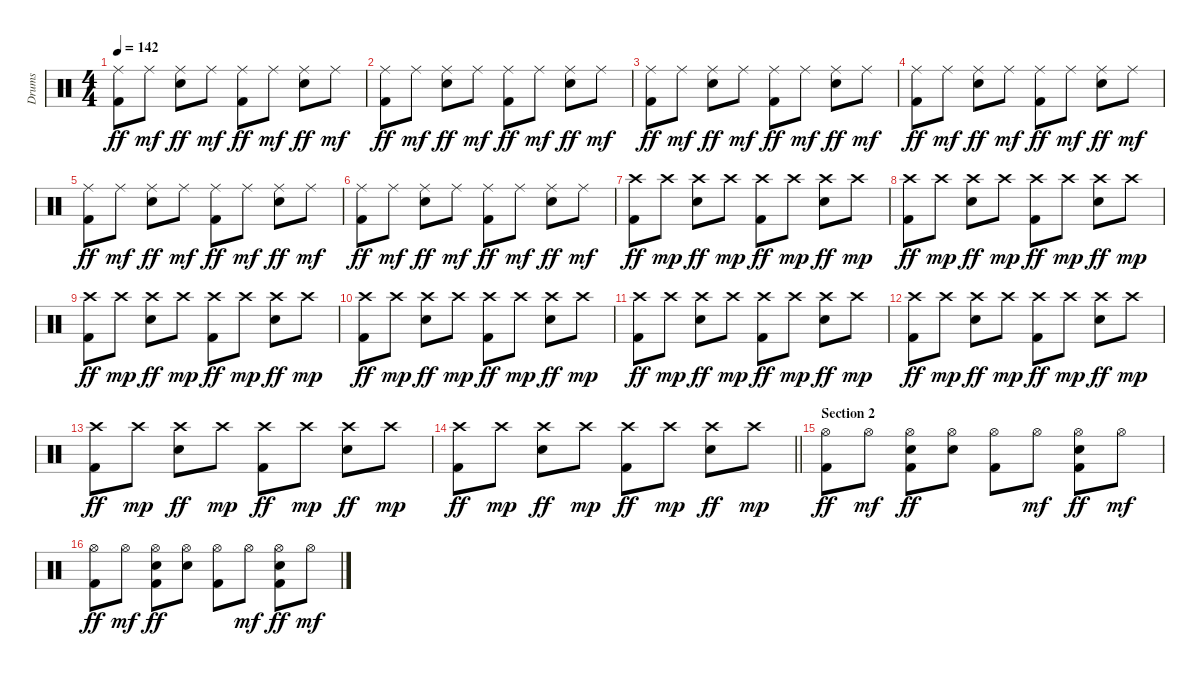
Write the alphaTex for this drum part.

\track ("Drums" "Drums") {instrument percussion}
\staff {score}
\articulation defaults
\ts (4 4)
\tempo 142
\clef neutral
\ks c
("Ride (middle)" "Kick (hit) 2").8{dy ff} "Ride (middle)".8{dy mf} ("Ride (middle)" "Snare (hit) 2").8{dy ff} "Ride (middle)".8{dy mf} ("Ride (middle)" "Kick (hit) 2").8{dy ff} "Ride (middle)".8{dy mf} ("Ride (middle)" "Snare (hit) 2").8{dy ff} "Ride (middle)".8{dy mf} |
("Ride (middle)" "Kick (hit) 2").8{dy ff} "Ride (middle)".8{dy mf} ("Ride (middle)" "Snare (hit) 2").8{dy ff} "Ride (middle)".8{dy mf} ("Ride (middle)" "Kick (hit) 2").8{dy ff} "Ride (middle)".8{dy mf} ("Ride (middle)" "Snare (hit) 2").8{dy ff} "Ride (middle)".8{dy mf} |
("Ride (middle)" "Kick (hit) 2").8{dy ff} "Ride (middle)".8{dy mf} ("Ride (middle)" "Snare (hit) 2").8{dy ff} "Ride (middle)".8{dy mf} ("Ride (middle)" "Kick (hit) 2").8{dy ff} "Ride (middle)".8{dy mf} ("Ride (middle)" "Snare (hit) 2").8{dy ff} "Ride (middle)".8{dy mf} |
("Ride (middle)" "Kick (hit) 2").8{dy ff} "Ride (middle)".8{dy mf} ("Ride (middle)" "Snare (hit) 2").8{dy ff} "Ride (middle)".8{dy mf} ("Ride (middle)" "Kick (hit) 2").8{dy ff} "Ride (middle)".8{dy mf} ("Ride (middle)" "Snare (hit) 2").8{dy ff} "Ride (middle)".8{dy mf} |
("Ride (middle)" "Kick (hit) 2").8{dy ff} "Ride (middle)".8{dy mf} ("Ride (middle)" "Snare (hit) 2").8{dy ff} "Ride (middle)".8{dy mf} ("Ride (middle)" "Kick (hit) 2").8{dy ff} "Ride (middle)".8{dy mf} ("Ride (middle)" "Snare (hit) 2").8{dy ff} "Ride (middle)".8{dy mf} |
("Ride (middle)" "Kick (hit) 2").8{dy ff} "Ride (middle)".8{dy mf} ("Ride (middle)" "Snare (hit) 2").8{dy ff} "Ride (middle)".8{dy mf} ("Ride (middle)" "Kick (hit) 2").8{dy ff} "Ride (middle)".8{dy mf} ("Ride (middle)" "Snare (hit) 2").8{dy ff} "Ride (middle)".8{dy mf} |
("Crash high (hit)" "Kick (hit) 2").8{dy ff} "Crash high (hit)".8{dy mp} ("Crash high (hit)" "Snare (hit) 2").8{dy ff} "Crash high (hit)".8{dy mp} ("Crash high (hit)" "Kick (hit) 2").8{dy ff} "Crash high (hit)".8{dy mp} ("Crash high (hit)" "Snare (hit) 2").8{dy ff} "Crash high (hit)".8{dy mp} |
("Crash high (hit)" "Kick (hit) 2").8{dy ff} "Crash high (hit)".8{dy mp} ("Crash high (hit)" "Snare (hit) 2").8{dy ff} "Crash high (hit)".8{dy mp} ("Crash high (hit)" "Kick (hit) 2").8{dy ff} "Crash high (hit)".8{dy mp} ("Crash high (hit)" "Snare (hit) 2").8{dy ff} "Crash high (hit)".8{dy mp} |
("Crash high (hit)" "Kick (hit) 2").8{dy ff} "Crash high (hit)".8{dy mp} ("Crash high (hit)" "Snare (hit) 2").8{dy ff} "Crash high (hit)".8{dy mp} ("Crash high (hit)" "Kick (hit) 2").8{dy ff} "Crash high (hit)".8{dy mp} ("Crash high (hit)" "Snare (hit) 2").8{dy ff} "Crash high (hit)".8{dy mp} |
("Crash high (hit)" "Kick (hit) 2").8{dy ff} "Crash high (hit)".8{dy mp} ("Crash high (hit)" "Snare (hit) 2").8{dy ff} "Crash high (hit)".8{dy mp} ("Crash high (hit)" "Kick (hit) 2").8{dy ff} "Crash high (hit)".8{dy mp} ("Crash high (hit)" "Snare (hit) 2").8{dy ff} "Crash high (hit)".8{dy mp} |
("Crash high (hit)" "Kick (hit) 2").8{dy ff} "Crash high (hit)".8{dy mp} ("Crash high (hit)" "Snare (hit) 2").8{dy ff} "Crash high (hit)".8{dy mp} ("Crash high (hit)" "Kick (hit) 2").8{dy ff} "Crash high (hit)".8{dy mp} ("Crash high (hit)" "Snare (hit) 2").8{dy ff} "Crash high (hit)".8{dy mp} |
("Crash high (hit)" "Kick (hit) 2").8{dy ff} "Crash high (hit)".8{dy mp} ("Crash high (hit)" "Snare (hit) 2").8{dy ff} "Crash high (hit)".8{dy mp} ("Crash high (hit)" "Kick (hit) 2").8{dy ff} "Crash high (hit)".8{dy mp} ("Crash high (hit)" "Snare (hit) 2").8{dy ff} "Crash high (hit)".8{dy mp} |
("Crash high (hit)" "Kick (hit) 2").8{dy ff} "Crash high (hit)".8{dy mp} ("Crash high (hit)" "Snare (hit) 2").8{dy ff} "Crash high (hit)".8{dy mp} ("Crash high (hit)" "Kick (hit) 2").8{dy ff} "Crash high (hit)".8{dy mp} ("Crash high (hit)" "Snare (hit) 2").8{dy ff} "Crash high (hit)".8{dy mp} |
\barLineRight lightlight
("Crash high (hit)" "Kick (hit) 2").8{dy ff} "Crash high (hit)".8{dy mp} ("Crash high (hit)" "Snare (hit) 2").8{dy ff} "Crash high (hit)".8{dy mp} ("Crash high (hit)" "Kick (hit) 2").8{dy ff} "Crash high (hit)".8{dy mp} ("Crash high (hit)" "Snare (hit) 2").8{dy ff} "Crash high (hit)".8{dy mp} |
\section ("" "Section 2")
("Hi-Hat (open)" "Kick (hit) 2").8{dy ff} "Hi-Hat (open)".8{dy mf} ("Hi-Hat (open)" "Snare (hit) 2" "Kick (hit) 2").8{dy ff} ("Hi-Hat (open)" "Snare (hit) 2").8 ("Hi-Hat (open)" "Kick (hit) 2").8 "Hi-Hat (open)".8{dy mf} ("Hi-Hat (open)" "Snare (hit) 2" "Kick (hit) 2").8{dy ff} "Hi-Hat (open)".8{dy mf} |
("Hi-Hat (open)" "Kick (hit) 2").8{dy ff} "Hi-Hat (open)".8{dy mf} ("Hi-Hat (open)" "Snare (hit) 2" "Kick (hit) 2").8{dy ff} ("Hi-Hat (open)" "Snare (hit) 2").8 ("Hi-Hat (open)" "Kick (hit) 2").8 "Hi-Hat (open)".8{dy mf} ("Hi-Hat (open)" "Snare (hit) 2" "Kick (hit) 2").8{dy ff} "Hi-Hat (open)".8{dy mf}
